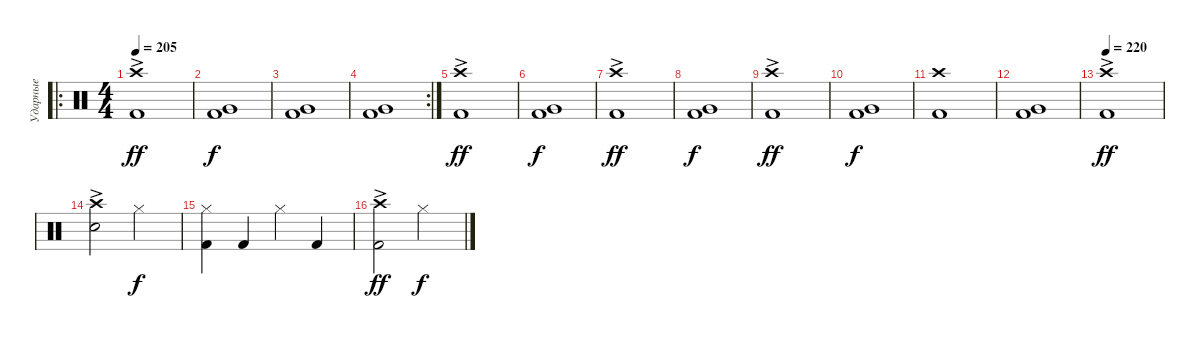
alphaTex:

\track ("Ударные" "Ударные") {instrument percussion}
\staff {score}
\articulation defaults
\ro
\ts (4 4)
\tempo 205
\clef neutral
\ks c
("Kick (hit) 2" "Crash high (hit)"{ac}).1{dy ff} |
("Kick (hit) 2" "Very Low Tom (hit)").1{dy f} |
("Kick (hit) 2" "Very Low Tom (hit)").1 |
\rc 2
("Kick (hit) 2" "Very Low Tom (hit)").1 |
("Kick (hit) 2" "Crash high (hit)"{ac}).1{dy ff} |
("Kick (hit) 2" "Very Low Tom (hit)").1{dy f} |
("Kick (hit) 2" "Crash high (hit)"{ac}).1{dy ff} |
("Kick (hit) 2" "Very Low Tom (hit)").1{dy f} |
("Kick (hit) 2" "Crash high (hit)"{ac}).1{dy ff} |
("Kick (hit) 2" "Very Low Tom (hit)").1{dy f} |
("Kick (hit) 2" "Crash high (hit)").1 |
("Kick (hit) 2" "Very Low Tom (hit)").1 |
\tempo 220
("Kick (hit) 2" "Crash high (hit)"{ac}).1{dy ff} |
("Snare (hit) 2" "Crash high (hit)"{ac}).2 "Hi-Hat (closed)".2{dy f} |
("Kick (hit) 2" "Hi-Hat (closed)").4 "Kick (hit) 2".4 "Hi-Hat (closed)".4 "Kick (hit) 2".4 |
("Kick (hit) 2" "Crash high (hit)"{ac}).2{dy ff} "Hi-Hat (closed)".2{dy f}
